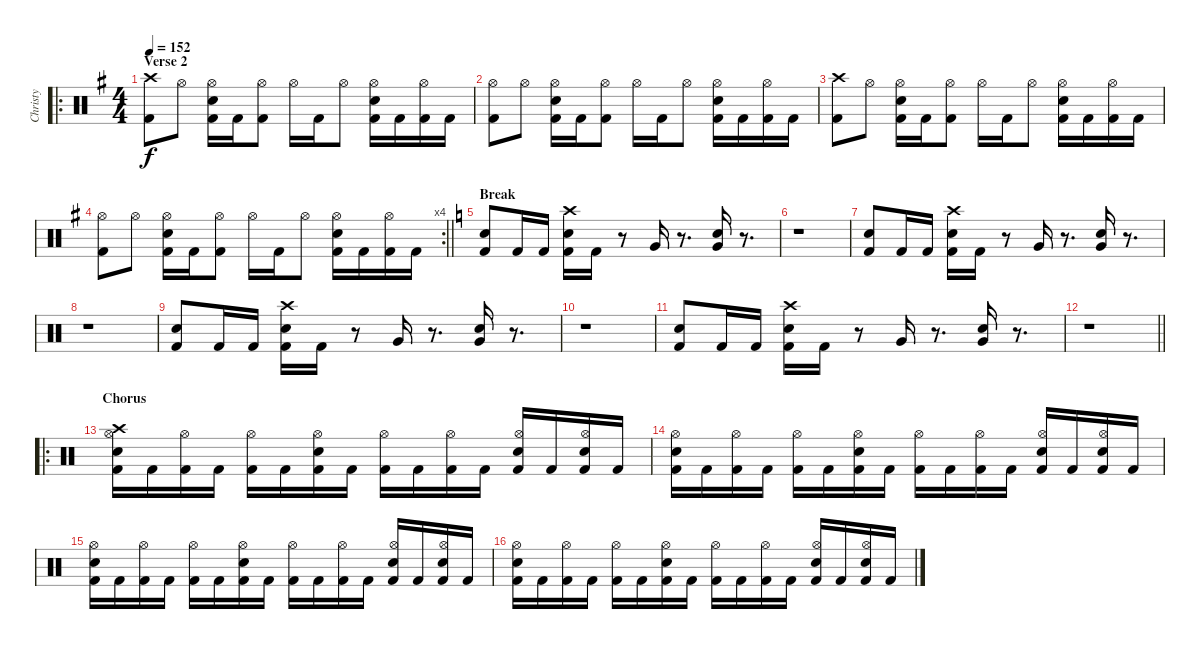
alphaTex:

\track ("Christy" "Christy") {instrument percussion}
\staff {score}
\articulation defaults
\ro
\ts (4 4)
\section ("" "Verse 2")
\tempo 152
\clef neutral
\ks g
("Crash high (hit)" "Kick (hit) 2").8{dy f} "Hi-Hat (open)".8 ("Hi-Hat (open)" "Snare (hit) 2" "Kick (hit) 2").16 "Kick (hit) 2".16 ("Hi-Hat (open)" "Kick (hit) 2").8 "Hi-Hat (open)".16 "Kick (hit) 2".16 "Hi-Hat (open)".8 ("Hi-Hat (open)" "Snare (hit) 2" "Kick (hit) 2").16 "Kick (hit) 2".16 ("Hi-Hat (open)" "Kick (hit) 2").16 "Kick (hit) 2".16 |
("Hi-Hat (open)" "Kick (hit) 2").8 "Hi-Hat (open)".8 ("Hi-Hat (open)" "Snare (hit) 2" "Kick (hit) 2").16 "Kick (hit) 2".16 ("Hi-Hat (open)" "Kick (hit) 2").8 "Hi-Hat (open)".16 "Kick (hit) 2".16 "Hi-Hat (open)".8 ("Hi-Hat (open)" "Snare (hit) 2" "Kick (hit) 2").16 "Kick (hit) 2".16 ("Hi-Hat (open)" "Kick (hit) 2").16 "Kick (hit) 2".16 |
("Crash high (hit)" "Kick (hit) 2").8 "Hi-Hat (open)".8 ("Hi-Hat (open)" "Snare (hit) 2" "Kick (hit) 2").16 "Kick (hit) 2".16 ("Hi-Hat (open)" "Kick (hit) 2").8 "Hi-Hat (open)".16 "Kick (hit) 2".16 "Hi-Hat (open)".8 ("Hi-Hat (open)" "Snare (hit) 2" "Kick (hit) 2").16 "Kick (hit) 2".16 ("Hi-Hat (open)" "Kick (hit) 2").16 "Kick (hit) 2".16 |
\rc 4
\barLineRight lightlight
("Hi-Hat (open)" "Kick (hit) 2").8 "Hi-Hat (open)".8 ("Hi-Hat (open)" "Snare (hit) 2" "Kick (hit) 2").16 "Kick (hit) 2".16 ("Hi-Hat (open)" "Kick (hit) 2").8 "Hi-Hat (open)".16 "Kick (hit) 2".16 "Hi-Hat (open)".8 ("Hi-Hat (open)" "Snare (hit) 2" "Kick (hit) 2").16 "Kick (hit) 2".16 ("Hi-Hat (open)" "Kick (hit) 2").16 "Kick (hit) 2".16 |
\section ("" "Break")
\ks c
("Snare (hit) 2" "Kick (hit) 2").8 "Kick (hit) 2".16 "Kick (hit) 2".16 ("Crash high (hit)" "Snare (hit) 2" "Kick (hit) 2").16 "Kick (hit) 2".16 r.8 "Very Low Tom (hit)".16 r.8{d} ("Snare (hit) 2" "Very Low Tom (hit)").16 r.8{d} |
r.1 |
("Snare (hit) 2" "Kick (hit) 2").8 "Kick (hit) 2".16 "Kick (hit) 2".16 ("Crash high (hit)" "Snare (hit) 2" "Kick (hit) 2").16 "Kick (hit) 2".16 r.8 "Very Low Tom (hit)".16 r.8{d} ("Snare (hit) 2" "Very Low Tom (hit)").16 r.8{d} |
r.1 |
("Snare (hit) 2" "Kick (hit) 2").8 "Kick (hit) 2".16 "Kick (hit) 2".16 ("Crash high (hit)" "Snare (hit) 2" "Kick (hit) 2").16 "Kick (hit) 2".16 r.8 "Very Low Tom (hit)".16 r.8{d} ("Snare (hit) 2" "Very Low Tom (hit)").16 r.8{d} |
r.1 |
("Snare (hit) 2" "Kick (hit) 2").8 "Kick (hit) 2".16 "Kick (hit) 2".16 ("Crash high (hit)" "Snare (hit) 2" "Kick (hit) 2").16 "Kick (hit) 2".16 r.8 "Very Low Tom (hit)".16 r.8{d} ("Snare (hit) 2" "Very Low Tom (hit)").16 r.8{d} |
\barLineRight lightlight
r.1 |
\ro
\section ("" "Chorus")
("Crash high (hit)" "Snare (hit) 2" "Hi-Hat (open)" "Kick (hit) 2").16 "Kick (hit) 2".16 ("Hi-Hat (open)" "Kick (hit) 2").16 "Kick (hit) 2".16 ("Hi-Hat (open)" "Kick (hit) 2").16 "Kick (hit) 2".16 ("Snare (hit) 2" "Hi-Hat (open)" "Kick (hit) 2").16 "Kick (hit) 2".16 ("Hi-Hat (open)" "Kick (hit) 2").16 "Kick (hit) 2".16 ("Hi-Hat (open)" "Kick (hit) 2").16 "Kick (hit) 2".16 ("Snare (hit) 2" "Hi-Hat (open)" "Kick (hit) 2").16 "Kick (hit) 2".16 ("Snare (hit) 2" "Hi-Hat (open)" "Kick (hit) 2").16 "Kick (hit) 2".16 |
("Snare (hit) 2" "Hi-Hat (open)" "Kick (hit) 2").16 "Kick (hit) 2".16 ("Hi-Hat (open)" "Kick (hit) 2").16 "Kick (hit) 2".16 ("Hi-Hat (open)" "Kick (hit) 2").16 "Kick (hit) 2".16 ("Snare (hit) 2" "Hi-Hat (open)" "Kick (hit) 2").16 "Kick (hit) 2".16 ("Hi-Hat (open)" "Kick (hit) 2").16 "Kick (hit) 2".16 ("Hi-Hat (open)" "Kick (hit) 2").16 "Kick (hit) 2".16 ("Snare (hit) 2" "Hi-Hat (open)" "Kick (hit) 2").16 "Kick (hit) 2".16 ("Snare (hit) 2" "Hi-Hat (open)" "Kick (hit) 2").16 "Kick (hit) 2".16 |
("Snare (hit) 2" "Hi-Hat (open)" "Kick (hit) 2").16 "Kick (hit) 2".16 ("Hi-Hat (open)" "Kick (hit) 2").16 "Kick (hit) 2".16 ("Hi-Hat (open)" "Kick (hit) 2").16 "Kick (hit) 2".16 ("Snare (hit) 2" "Hi-Hat (open)" "Kick (hit) 2").16 "Kick (hit) 2".16 ("Hi-Hat (open)" "Kick (hit) 2").16 "Kick (hit) 2".16 ("Hi-Hat (open)" "Kick (hit) 2").16 "Kick (hit) 2".16 ("Snare (hit) 2" "Hi-Hat (open)" "Kick (hit) 2").16 "Kick (hit) 2".16 ("Snare (hit) 2" "Hi-Hat (open)" "Kick (hit) 2").16 "Kick (hit) 2".16 |
("Snare (hit) 2" "Hi-Hat (open)" "Kick (hit) 2").16 "Kick (hit) 2".16 ("Hi-Hat (open)" "Kick (hit) 2").16 "Kick (hit) 2".16 ("Hi-Hat (open)" "Kick (hit) 2").16 "Kick (hit) 2".16 ("Snare (hit) 2" "Hi-Hat (open)" "Kick (hit) 2").16 "Kick (hit) 2".16 ("Hi-Hat (open)" "Kick (hit) 2").16 "Kick (hit) 2".16 ("Hi-Hat (open)" "Kick (hit) 2").16 "Kick (hit) 2".16 ("Snare (hit) 2" "Hi-Hat (open)" "Kick (hit) 2").16 "Kick (hit) 2".16 ("Snare (hit) 2" "Hi-Hat (open)" "Kick (hit) 2").16 "Kick (hit) 2".16
